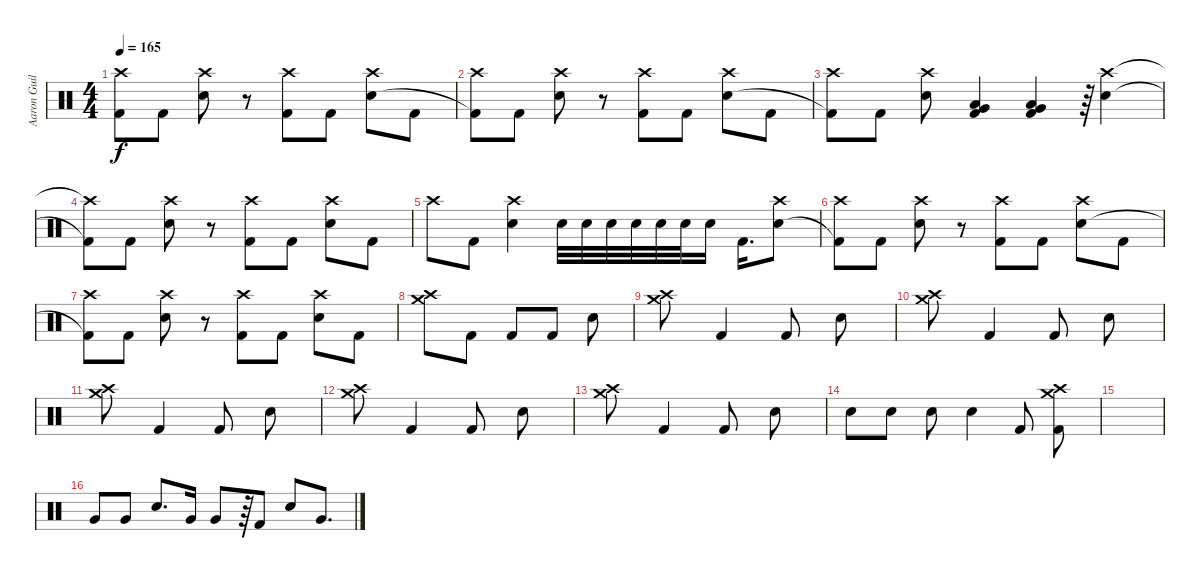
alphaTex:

\track ("Aaron Guillespie" "Aaron Guil") {instrument percussion}
\staff {score}
\articulation defaults
\ts (4 4)
\tempo 165
\clef neutral
\ks c
("Crash high (hit)" "Kick (hit) 2"{t}).8{dy f} "Kick (hit) 2".8 ("Crash high (hit)" "Electric Snare (hit)").8 r.8 ("Crash high (hit)" "Kick (hit) 2").8 "Kick (hit) 2".8 ("Crash high (hit)" "Electric Snare (hit)").8 "Kick (hit) 2".8 |
("Crash high (hit)" "Kick (hit) 2"{t}).8 "Kick (hit) 2".8 ("Crash high (hit)" "Electric Snare (hit)").8 r.8 ("Crash high (hit)" "Kick (hit) 2").8 "Kick (hit) 2".8 ("Crash high (hit)" "Electric Snare (hit)").8 "Kick (hit) 2".8 |
("Crash high (hit)" "Kick (hit) 2"{t}).8 "Kick (hit) 2".8 ("Crash high (hit)" "Electric Snare (hit)").8 ("Low Tom (hit)" "Very Low Tom (hit)" "Kick (hit) 2").4 ("Low Tom (hit)" "Very Low Tom (hit)" "Kick (hit) 2").4 r.64 ("Crash high (hit)" "Electric Snare (hit)").4 |
("Crash high (hit)"{t} "Kick (hit) 2"{t}).8 "Kick (hit) 2".8 ("Crash high (hit)" "Electric Snare (hit)").8 r.8 ("Crash high (hit)" "Kick (hit) 2").8 "Kick (hit) 2".8 ("Crash high (hit)" "Electric Snare (hit)").8 "Kick (hit) 2".8 |
"Crash high (hit)".8 "Kick (hit) 2".8 ("Crash high (hit)" "Electric Snare (hit)").4 "Electric Snare (hit)".32 "Electric Snare (hit)".32 "Electric Snare (hit)".32 "Electric Snare (hit)".32 "Electric Snare (hit)".32 "Electric Snare (hit)".32 "Electric Snare (hit)".16 "Kick (hit) 2".16{d} ("Crash high (hit)" "Electric Snare (hit)").8 |
("Crash high (hit)" "Kick (hit) 2"{t}).8 "Kick (hit) 2".8 ("Crash high (hit)" "Electric Snare (hit)").8 r.8 ("Crash high (hit)" "Kick (hit) 2").8 "Kick (hit) 2".8 ("Crash high (hit)" "Electric Snare (hit)").8 "Kick (hit) 2".8 |
("Crash high (hit)" "Kick (hit) 2"{t}).8 "Kick (hit) 2".8 ("Crash high (hit)" "Electric Snare (hit)").8 r.8 ("Crash high (hit)" "Kick (hit) 2").8 "Kick (hit) 2".8 ("Crash high (hit)" "Electric Snare (hit)").8 "Kick (hit) 2".8 |
("Crash medium (hit)" "Crash high (hit)").8 "Kick (hit) 2".8 "Kick (hit) 2".8 "Kick (hit) 2".8 "Electric Snare (hit)".8 |
("Crash medium (hit)" "Crash high (hit)").8 "Kick (hit) 2".4 "Kick (hit) 2".8 "Electric Snare (hit)".8 |
("Crash medium (hit)" "Crash high (hit)").8 "Kick (hit) 2".4 "Kick (hit) 2".8 "Electric Snare (hit)".8 |
("Crash medium (hit)" "Crash high (hit)").8 "Kick (hit) 2".4 "Kick (hit) 2".8 "Electric Snare (hit)".8 |
("Crash medium (hit)" "Crash high (hit)").8 "Kick (hit) 2".4 "Kick (hit) 2".8 "Electric Snare (hit)".8 |
("Crash medium (hit)" "Crash high (hit)").8 "Kick (hit) 2".4 "Kick (hit) 2".8 "Electric Snare (hit)".8 |
"Electric Snare (hit)".8 "Electric Snare (hit)".8 "Electric Snare (hit)".8 "Electric Snare (hit)".4 "Kick (hit) 2".8 ("Crash high (hit)" "Crash medium (hit)" "Kick (hit) 2").8 |
|
"Very Low Tom (hit)".8 "Very Low Tom (hit)".8 "Electric Snare (hit)".8{d} "Very Low Tom (hit)".16 "Very Low Tom (hit)".8 r.64 "Kick (hit) 2".8 "Electric Snare (hit)".8 "Very Low Tom (hit)".8{d}
